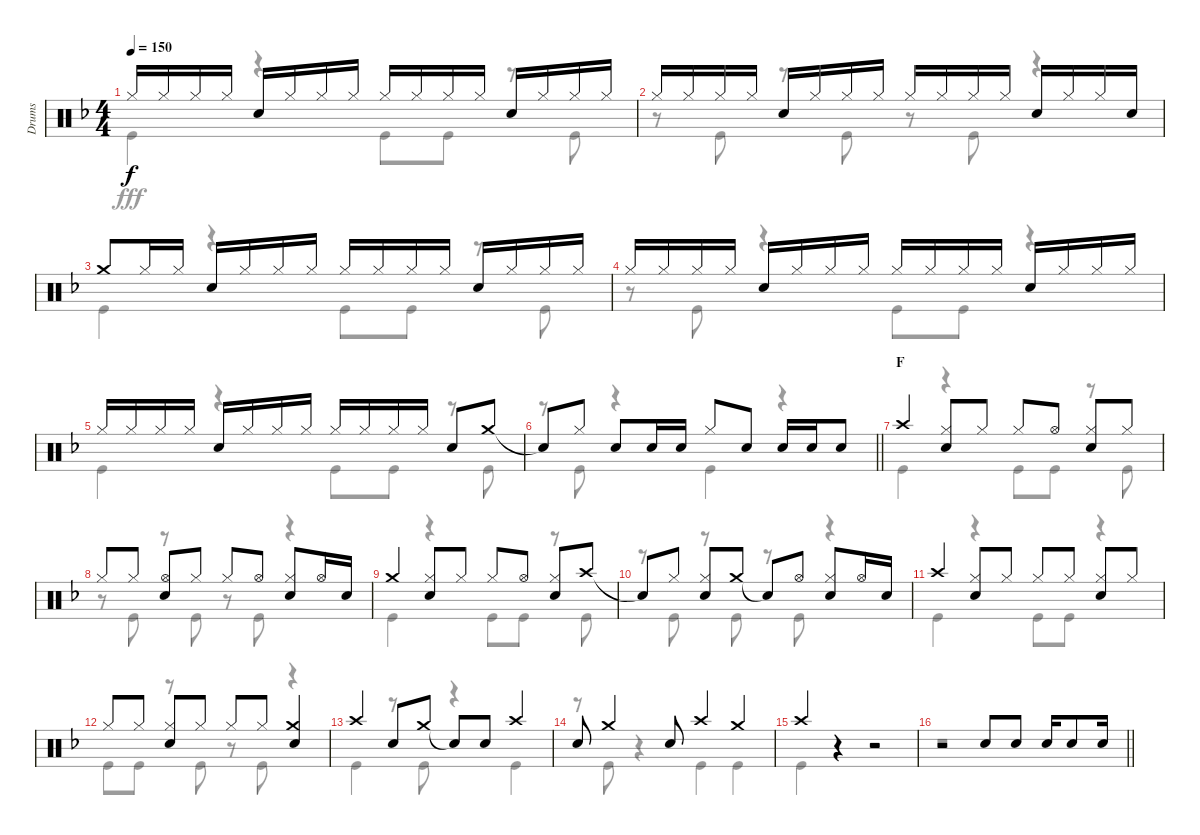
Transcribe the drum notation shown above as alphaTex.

\track ("Drums" "Drums") {instrument percussion}
\staff {score}
\articulation defaults
\voice
\ts (4 4)
\tempo 150
\clef neutral
\ks f "Hi-Hat (closed)".16{dy f} "Hi-Hat (closed)".16 "Hi-Hat (closed)".16 "Hi-Hat (closed)".16 "Snare (hit) 2".16 "Hi-Hat (closed)".16 "Hi-Hat (closed)".16 "Hi-Hat (closed)".16 "Hi-Hat (closed)".16 "Hi-Hat (closed)".16 "Hi-Hat (closed)".16 "Hi-Hat (closed)".16 "Snare (hit) 2".16 "Hi-Hat (closed)".16 "Hi-Hat (closed)".16 "Hi-Hat (closed)".16
|
"Hi-Hat (closed)".16 "Hi-Hat (closed)".16 "Hi-Hat (closed)".16 "Hi-Hat (closed)".16 "Snare (hit) 2".16 "Hi-Hat (closed)".16 "Hi-Hat (closed)".16 "Hi-Hat (closed)".16 "Hi-Hat (closed)".16 "Hi-Hat (closed)".16 "Hi-Hat (closed)".16 "Hi-Hat (closed)".16 "Snare (hit) 2".16 "Hi-Hat (closed)".16 "Hi-Hat (closed)".16 "Snare (hit) 2".16 |
"Crash medium (hit)".8 "Hi-Hat (closed)".16 "Hi-Hat (closed)".16 "Snare (hit) 2".16 "Hi-Hat (closed)".16 "Hi-Hat (closed)".16 "Hi-Hat (closed)".16 "Hi-Hat (closed)".16 "Hi-Hat (closed)".16 "Hi-Hat (closed)".16 "Hi-Hat (closed)".16 "Snare (hit) 2".16 "Hi-Hat (closed)".16 "Hi-Hat (closed)".16 "Hi-Hat (closed)".16 |
"Hi-Hat (closed)".16 "Hi-Hat (closed)".16 "Hi-Hat (closed)".16 "Hi-Hat (closed)".16 "Snare (hit) 2".16 "Hi-Hat (closed)".16 "Hi-Hat (closed)".16 "Hi-Hat (closed)".16 "Hi-Hat (closed)".16 "Hi-Hat (closed)".16 "Hi-Hat (closed)".16 "Hi-Hat (closed)".16 "Snare (hit) 2".16 "Hi-Hat (closed)".16 "Hi-Hat (closed)".16 "Hi-Hat (closed)".16 |
"Hi-Hat (closed)".16 "Hi-Hat (closed)".16 "Hi-Hat (closed)".16 "Hi-Hat (closed)".16 "Snare (hit) 2".16 "Hi-Hat (closed)".16 "Hi-Hat (closed)".16 "Hi-Hat (closed)".16 "Hi-Hat (closed)".16 "Hi-Hat (closed)".16 "Hi-Hat (closed)".16 "Hi-Hat (closed)".16 "Snare (hit) 2".8 "Crash medium (hit)".8 |
\barLineRight lightlight "Snare (hit)"{t}.8 "Hi-Hat (closed)".8 "Snare (hit) 2".8 "Snare (hit) 2".16 "Snare (hit) 2".16 "Hi-Hat (closed)".8 "Snare (hit) 2".8 "Snare (hit) 2".16 "Snare (hit) 2".16 "Snare (hit) 2".8
|
\section ("" "F")
"Crash high (hit)".4 ("Hi-Hat (closed)" "Snare (hit) 2").8 "Hi-Hat (closed)".8 "Hi-Hat (closed)".8 "Hi-Hat (open)".8 ("Hi-Hat (closed)" "Snare (hit) 2").8 "Hi-Hat (closed)".8 |
"Hi-Hat (closed)".8 "Hi-Hat (closed)".8 ("Hi-Hat (open)" "Snare (hit) 2").8 "Hi-Hat (closed)".8 "Hi-Hat (closed)".8 "Hi-Hat (open)".8 ("Hi-Hat (closed)" "Snare (hit) 2").8 "Hi-Hat (open)".16 "Snare (hit) 2".16 |
"Crash medium (hit)".4 ("Hi-Hat (closed)" "Snare (hit) 2").8 "Hi-Hat (closed)".8 "Hi-Hat (closed)".8 "Hi-Hat (open)".8 ("Hi-Hat (closed)" "Snare (hit) 2").8 "Crash high (hit)".8 |
"Snare (hit)"{t}.8 "Hi-Hat (closed)".8 ("Hi-Hat (closed)" "Snare (hit) 2").8 "Crash medium (hit)".8 "Snare (hit)"{t}.8 "Hi-Hat (open)".8 ("Hi-Hat (closed)" "Snare (hit) 2").8 "Hi-Hat (open)".16 "Snare (hit) 2".16 |
"Crash high (hit)".4 ("Hi-Hat (closed)" "Snare (hit) 2").8 "Hi-Hat (closed)".8 "Hi-Hat (closed)".8 "Hi-Hat (closed)".8 ("Hi-Hat (closed)" "Snare (hit) 2").8 "Hi-Hat (closed)".8 |
"Hi-Hat (closed)".8 "Hi-Hat (closed)".8 ("Hi-Hat (closed)" "Snare (hit) 2").8 "Hi-Hat (closed)".8 "Hi-Hat (closed)".8 "Hi-Hat (closed)".8 ("Crash medium (hit)" "Snare (hit) 2").4 |
"Crash high (hit)".4 "Snare (hit) 2".8 "Crash medium (hit)".8 "Snare (hit)"{t}.8 "Snare (hit) 2".8 "Crash high (hit)".4 |
"Snare (hit) 2".8 "Crash medium (hit)".4 "Snare (hit) 2".8 "Crash high (hit)".4 "Crash medium (hit)".4 |
"Crash high (hit)".4 r.4 r.2 |
\barLineRight lightlight
r.2 "Snare (hit) 2".8 "Snare (hit) 2".8 "Snare (hit) 2".16 "Snare (hit) 2".8 "Snare (hit) 2".16
\voice
\clef neutral
\ottava regular
\simile none
\ks f "Kick (hit)".4{dy fff}
r.4 "Kick (hit)".8 "Kick (hit)".8 r.8 "Kick (hit)".8 |
r.8 "Kick (hit)".8 r.8 "Kick (hit)".8 r.8 "Kick (hit)".8 r.4 |
"Kick (hit)".4 r.4 "Kick (hit)".8 "Kick (hit)".8 r.8 "Kick (hit)".8 |
r.8 "Kick (hit)".8 r.4 "Kick (hit)".8 "Kick (hit)".8 r.4 |
"Kick (hit)".4 r.4 "Kick (hit)".8 "Kick (hit)".8 r.8 "Kick (hit)".8 |
\barLineRight lightlight
r.8 "Kick (hit)".8 r.4 "Kick (hit)".4 r.4 |
"Kick (hit)".4 r.4 "Kick (hit)".8 "Kick (hit)".8 r.8 "Kick (hit)".8 |
r.8 "Kick (hit)".8 r.8 "Kick (hit)".8 r.8 "Kick (hit)".8 r.4 |
"Kick (hit)".4 r.4 "Kick (hit)".8 "Kick (hit)".8 r.8 "Kick (hit)".8 |
r.8 "Kick (hit)".8 r.8 "Kick (hit)".8 r.8 "Kick (hit)".8 r.4 |
"Kick (hit)".4 r.4 "Kick (hit)".8 "Kick (hit)".8 r.4 |
"Kick (hit)".8 "Kick (hit)".8 r.8 "Kick (hit)".8 r.8 "Kick (hit)".8 r.4 |
"Kick (hit)".4 r.8 "Kick (hit)".8 r.4 "Kick (hit)".4 |
r.8 "Kick (hit)".8 r.4 "Kick (hit)".4 "Kick (hit)".4 |
"Kick (hit)".4 r.4 r.2 |
\barLineRight lightlight
r.1
